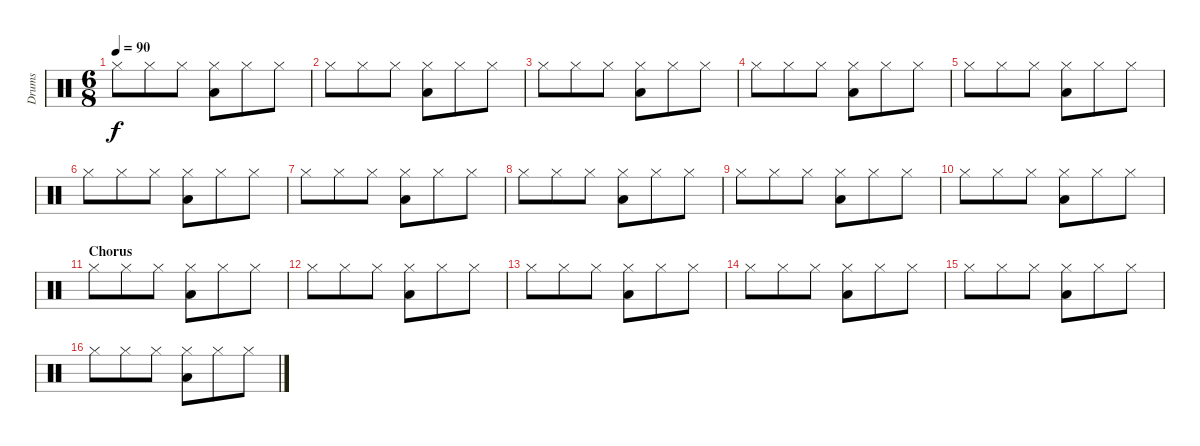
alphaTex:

\track ("Drums" "Drums") {instrument percussion}
\staff {score}
\articulation defaults
\ts (6 8)
\tempo 90
\clef neutral
\ks c "Hi-Hat (closed)".8{dy f} "Hi-Hat (closed)".8 "Hi-Hat (closed)".8
("Hi-Hat (closed)" "Low Floor Tom (hit)").8 "Hi-Hat (closed)".8 "Hi-Hat (closed)".8 |
"Hi-Hat (closed)".8 "Hi-Hat (closed)".8 "Hi-Hat (closed)".8 ("Hi-Hat (closed)" "Low Floor Tom (hit)").8 "Hi-Hat (closed)".8 "Hi-Hat (closed)".8 |
"Hi-Hat (closed)".8 "Hi-Hat (closed)".8 "Hi-Hat (closed)".8 ("Hi-Hat (closed)" "Low Floor Tom (hit)").8 "Hi-Hat (closed)".8 "Hi-Hat (closed)".8 |
"Hi-Hat (closed)".8 "Hi-Hat (closed)".8 "Hi-Hat (closed)".8 ("Hi-Hat (closed)" "Low Floor Tom (hit)").8 "Hi-Hat (closed)".8 "Hi-Hat (closed)".8 |
"Hi-Hat (closed)".8 "Hi-Hat (closed)".8 "Hi-Hat (closed)".8 ("Hi-Hat (closed)" "Low Floor Tom (hit)").8 "Hi-Hat (closed)".8 "Hi-Hat (closed)".8 |
"Hi-Hat (closed)".8 "Hi-Hat (closed)".8 "Hi-Hat (closed)".8 ("Hi-Hat (closed)" "Low Floor Tom (hit)").8 "Hi-Hat (closed)".8 "Hi-Hat (closed)".8 |
"Hi-Hat (closed)".8 "Hi-Hat (closed)".8 "Hi-Hat (closed)".8 ("Hi-Hat (closed)" "Low Floor Tom (hit)").8 "Hi-Hat (closed)".8 "Hi-Hat (closed)".8 |
"Hi-Hat (closed)".8 "Hi-Hat (closed)".8 "Hi-Hat (closed)".8 ("Hi-Hat (closed)" "Low Floor Tom (hit)").8 "Hi-Hat (closed)".8 "Hi-Hat (closed)".8 |
"Hi-Hat (closed)".8 "Hi-Hat (closed)".8 "Hi-Hat (closed)".8 ("Hi-Hat (closed)" "Low Floor Tom (hit)").8 "Hi-Hat (closed)".8 "Hi-Hat (closed)".8 |
"Hi-Hat (closed)".8 "Hi-Hat (closed)".8 "Hi-Hat (closed)".8 ("Hi-Hat (closed)" "Low Floor Tom (hit)").8 "Hi-Hat (closed)".8 "Hi-Hat (closed)".8 |
\section ("" "Chorus")
"Hi-Hat (closed)".8 "Hi-Hat (closed)".8 "Hi-Hat (closed)".8 ("Hi-Hat (closed)" "Low Floor Tom (hit)").8 "Hi-Hat (closed)".8 "Hi-Hat (closed)".8 |
"Hi-Hat (closed)".8 "Hi-Hat (closed)".8 "Hi-Hat (closed)".8 ("Hi-Hat (closed)" "Low Floor Tom (hit)").8 "Hi-Hat (closed)".8 "Hi-Hat (closed)".8 |
"Hi-Hat (closed)".8 "Hi-Hat (closed)".8 "Hi-Hat (closed)".8 ("Hi-Hat (closed)" "Low Floor Tom (hit)").8 "Hi-Hat (closed)".8 "Hi-Hat (closed)".8 |
"Hi-Hat (closed)".8 "Hi-Hat (closed)".8 "Hi-Hat (closed)".8 ("Hi-Hat (closed)" "Low Floor Tom (hit)").8 "Hi-Hat (closed)".8 "Hi-Hat (closed)".8 |
"Hi-Hat (closed)".8 "Hi-Hat (closed)".8 "Hi-Hat (closed)".8 ("Hi-Hat (closed)" "Low Floor Tom (hit)").8 "Hi-Hat (closed)".8 "Hi-Hat (closed)".8 |
"Hi-Hat (closed)".8 "Hi-Hat (closed)".8 "Hi-Hat (closed)".8 ("Hi-Hat (closed)" "Low Floor Tom (hit)").8 "Hi-Hat (closed)".8 "Hi-Hat (closed)".8
